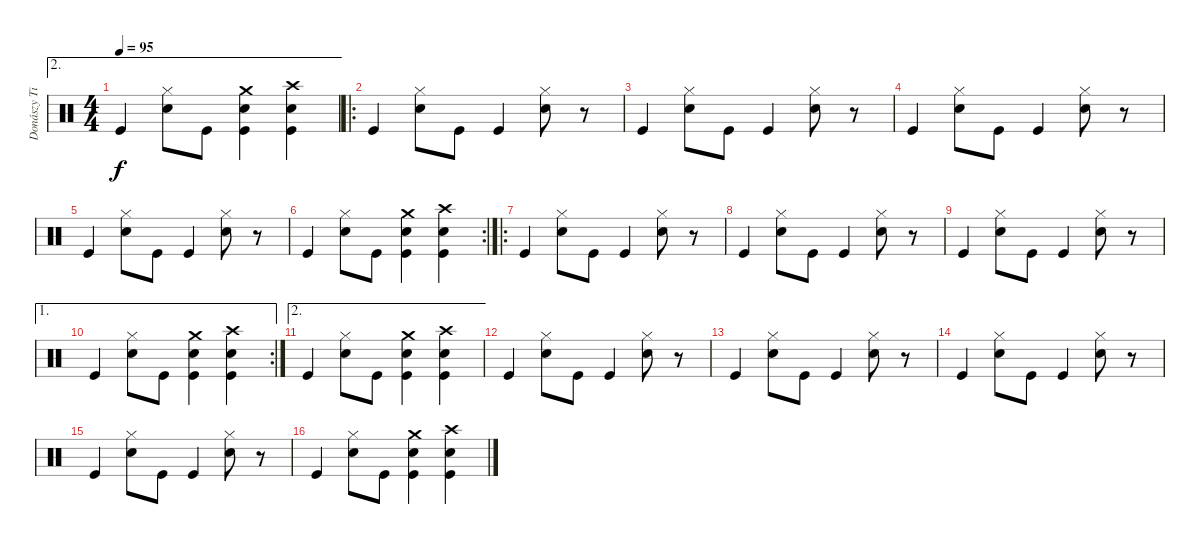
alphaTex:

\track ("Donászy Tibor" "Donászy Ti") {instrument percussion}
\staff {score}
\articulation defaults
\ae 2
\ts (4 4)
\tempo 95
\clef neutral
\ks c "Kick (hit)".4{dy f}
("Hi-Hat (closed)" "Snare (hit) 2").8 "Kick (hit)".8 ("Kick (hit)" "Snare (hit) 2" "Crash medium (hit)").4 ("Kick (hit)" "Snare (hit) 2" "Crash high (hit)").4 |
\ro "Kick (hit)".4
("Hi-Hat (closed)" "Snare (hit) 2").8 "Kick (hit)".8 "Kick (hit)".4 ("Hi-Hat (closed)" "Snare (hit) 2").8 r.8 |
"Kick (hit)".4 ("Hi-Hat (closed)" "Snare (hit) 2").8 "Kick (hit)".8 "Kick (hit)".4 ("Hi-Hat (closed)" "Snare (hit) 2").8 r.8 |
"Kick (hit)".4 ("Hi-Hat (closed)" "Snare (hit) 2").8 "Kick (hit)".8 "Kick (hit)".4 ("Hi-Hat (closed)" "Snare (hit) 2").8 r.8 |
"Kick (hit)".4 ("Hi-Hat (closed)" "Snare (hit) 2").8 "Kick (hit)".8 "Kick (hit)".4 ("Hi-Hat (closed)" "Snare (hit) 2").8 r.8 |
\rc 2 "Kick (hit)".4
("Hi-Hat (closed)" "Snare (hit) 2").8 "Kick (hit)".8 ("Kick (hit)" "Snare (hit) 2" "Crash medium (hit)").4 ("Kick (hit)" "Snare (hit) 2" "Crash high (hit)").4 |
\ro "Kick (hit)".4
("Hi-Hat (closed)" "Snare (hit) 2").8 "Kick (hit)".8 "Kick (hit)".4 ("Hi-Hat (closed)" "Snare (hit) 2").8 r.8 |
"Kick (hit)".4 ("Hi-Hat (closed)" "Snare (hit) 2").8 "Kick (hit)".8 "Kick (hit)".4 ("Hi-Hat (closed)" "Snare (hit) 2").8 r.8 |
"Kick (hit)".4 ("Hi-Hat (closed)" "Snare (hit) 2").8 "Kick (hit)".8 "Kick (hit)".4 ("Hi-Hat (closed)" "Snare (hit) 2").8 r.8 |
\ae 1
\rc 2 "Kick (hit)".4
("Hi-Hat (closed)" "Snare (hit) 2").8 "Kick (hit)".8 ("Kick (hit)" "Snare (hit) 2" "Crash medium (hit)").4 ("Kick (hit)" "Snare (hit) 2" "Crash high (hit)").4 |
\ae 2 "Kick (hit)".4
("Hi-Hat (closed)" "Snare (hit) 2").8 "Kick (hit)".8 ("Kick (hit)" "Snare (hit) 2" "Crash medium (hit)").4 ("Kick (hit)" "Snare (hit) 2" "Crash high (hit)").4 |
"Kick (hit)".4 ("Hi-Hat (closed)" "Snare (hit) 2").8 "Kick (hit)".8 "Kick (hit)".4 ("Hi-Hat (closed)" "Snare (hit) 2").8 r.8 |
"Kick (hit)".4 ("Hi-Hat (closed)" "Snare (hit) 2").8 "Kick (hit)".8 "Kick (hit)".4 ("Hi-Hat (closed)" "Snare (hit) 2").8 r.8 |
"Kick (hit)".4 ("Hi-Hat (closed)" "Snare (hit) 2").8 "Kick (hit)".8 "Kick (hit)".4 ("Hi-Hat (closed)" "Snare (hit) 2").8 r.8 |
"Kick (hit)".4 ("Hi-Hat (closed)" "Snare (hit) 2").8 "Kick (hit)".8 "Kick (hit)".4 ("Hi-Hat (closed)" "Snare (hit) 2").8 r.8 |
"Kick (hit)".4 ("Hi-Hat (closed)" "Snare (hit) 2").8 "Kick (hit)".8 ("Kick (hit)" "Snare (hit) 2" "Crash medium (hit)").4 ("Kick (hit)" "Snare (hit) 2" "Crash high (hit)").4
